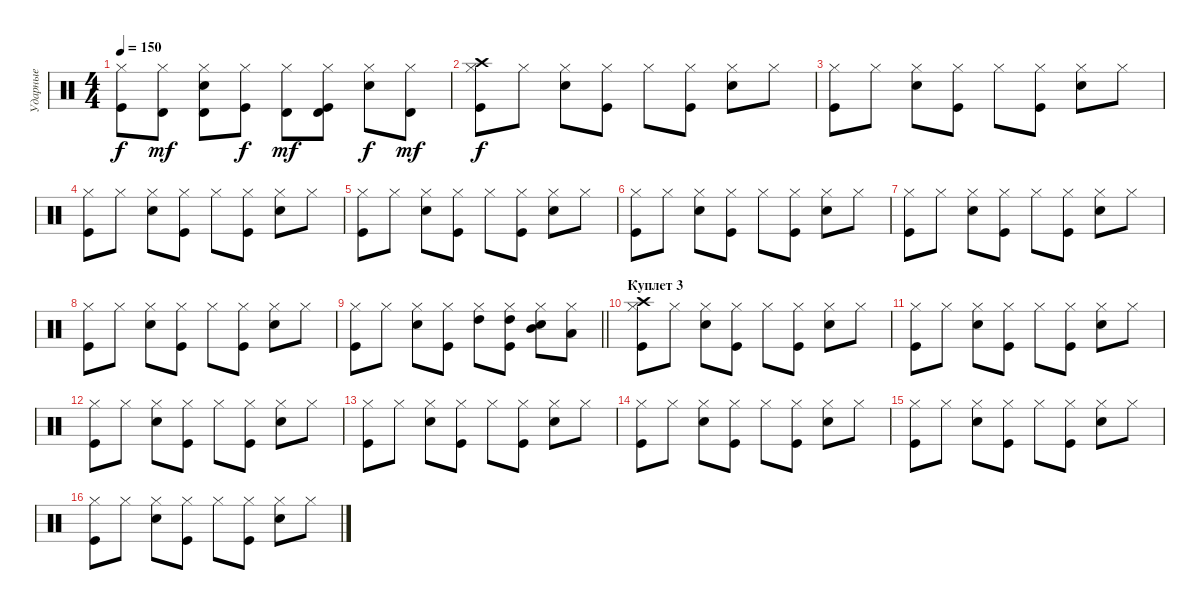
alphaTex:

\track ("Ударные" "Ударные") {instrument percussion}
\staff {score}
\articulation defaults
\ts (4 4)
\tempo 150
\clef neutral
\ks c
("Kick (hit)" "Hi-Hat (closed)").8{dy f} ("Hi-Hat (closed)" "Timbale high (hit)").8{dy mf} ("Snare (hit) 2" "Hi-Hat (closed)" "Timbale high (hit)").8 ("Kick (hit)" "Hi-Hat (closed)").8{dy f} ("Hi-Hat (closed)" "Timbale high (hit)").8{dy mf} ("Kick (hit)" "Hi-Hat (closed)" "Timbale high (hit)").8 ("Snare (hit) 2" "Hi-Hat (closed)").8{dy f} ("Hi-Hat (closed)" "Timbale high (hit)").8{dy mf} |
("Kick (hit)" "Hi-Hat (closed)" "Crash high (hit)").8{dy f} "Hi-Hat (closed)".8 ("Snare (hit) 2" "Hi-Hat (closed)").8 ("Kick (hit)" "Hi-Hat (closed)").8 "Hi-Hat (closed)".8 ("Kick (hit)" "Hi-Hat (closed)").8 ("Snare (hit) 2" "Hi-Hat (closed)").8 "Hi-Hat (closed)".8 |
("Kick (hit)" "Hi-Hat (closed)").8 "Hi-Hat (closed)".8 ("Snare (hit) 2" "Hi-Hat (closed)").8 ("Kick (hit)" "Hi-Hat (closed)").8 "Hi-Hat (closed)".8 ("Kick (hit)" "Hi-Hat (closed)").8 ("Snare (hit) 2" "Hi-Hat (closed)").8 "Hi-Hat (closed)".8 |
("Kick (hit)" "Hi-Hat (closed)").8 "Hi-Hat (closed)".8 ("Snare (hit) 2" "Hi-Hat (closed)").8 ("Kick (hit)" "Hi-Hat (closed)").8 "Hi-Hat (closed)".8 ("Kick (hit)" "Hi-Hat (closed)").8 ("Snare (hit) 2" "Hi-Hat (closed)").8 "Hi-Hat (closed)".8 |
("Kick (hit)" "Hi-Hat (closed)").8 "Hi-Hat (closed)".8 ("Snare (hit) 2" "Hi-Hat (closed)").8 ("Kick (hit)" "Hi-Hat (closed)").8 "Hi-Hat (closed)".8 ("Kick (hit)" "Hi-Hat (closed)").8 ("Snare (hit) 2" "Hi-Hat (closed)").8 "Hi-Hat (closed)".8 |
("Kick (hit)" "Hi-Hat (closed)").8 "Hi-Hat (closed)".8 ("Snare (hit) 2" "Hi-Hat (closed)").8 ("Kick (hit)" "Hi-Hat (closed)").8 "Hi-Hat (closed)".8 ("Kick (hit)" "Hi-Hat (closed)").8 ("Snare (hit) 2" "Hi-Hat (closed)").8 "Hi-Hat (closed)".8 |
("Kick (hit)" "Hi-Hat (closed)").8 "Hi-Hat (closed)".8 ("Snare (hit) 2" "Hi-Hat (closed)").8 ("Kick (hit)" "Hi-Hat (closed)").8 "Hi-Hat (closed)".8 ("Kick (hit)" "Hi-Hat (closed)").8 ("Snare (hit) 2" "Hi-Hat (closed)").8 "Hi-Hat (closed)".8 |
("Kick (hit)" "Hi-Hat (closed)").8 "Hi-Hat (closed)".8 ("Snare (hit) 2" "Hi-Hat (closed)").8 ("Kick (hit)" "Hi-Hat (closed)").8 "Hi-Hat (closed)".8 ("Kick (hit)" "Hi-Hat (closed)").8 ("Snare (hit) 2" "Hi-Hat (closed)").8 "Hi-Hat (closed)".8 |
\barLineRight lightlight
("Kick (hit)" "Hi-Hat (closed)").8 "Hi-Hat (closed)".8 ("Snare (hit) 2" "Hi-Hat (closed)").8 ("Kick (hit)" "Hi-Hat (closed)").8 ("Hi-Hat (closed)" "High Tom (hit)").8 ("Kick (hit)" "Hi-Hat (closed)" "High Tom (hit)").8 ("Snare (hit) 2" "Hi-Hat (closed)" "Mid Tom (hit)").8 ("Hi-Hat (closed)" "Low Tom (hit)").8 |
\section ("" "Куплет 3")
("Kick (hit)" "Hi-Hat (closed)" "Crash high (hit)").8 "Hi-Hat (closed)".8 ("Snare (hit) 2" "Hi-Hat (closed)").8 ("Kick (hit)" "Hi-Hat (closed)").8 "Hi-Hat (closed)".8 ("Kick (hit)" "Hi-Hat (closed)").8 ("Snare (hit) 2" "Hi-Hat (closed)").8 "Hi-Hat (closed)".8 |
("Kick (hit)" "Hi-Hat (closed)").8 "Hi-Hat (closed)".8 ("Snare (hit) 2" "Hi-Hat (closed)").8 ("Kick (hit)" "Hi-Hat (closed)").8 "Hi-Hat (closed)".8 ("Kick (hit)" "Hi-Hat (closed)").8 ("Snare (hit) 2" "Hi-Hat (closed)").8 "Hi-Hat (closed)".8 |
("Kick (hit)" "Hi-Hat (closed)").8 "Hi-Hat (closed)".8 ("Snare (hit) 2" "Hi-Hat (closed)").8 ("Kick (hit)" "Hi-Hat (closed)").8 "Hi-Hat (closed)".8 ("Kick (hit)" "Hi-Hat (closed)").8 ("Snare (hit) 2" "Hi-Hat (closed)").8 "Hi-Hat (closed)".8 |
("Kick (hit)" "Hi-Hat (closed)").8 "Hi-Hat (closed)".8 ("Snare (hit) 2" "Hi-Hat (closed)").8 ("Kick (hit)" "Hi-Hat (closed)").8 "Hi-Hat (closed)".8 ("Kick (hit)" "Hi-Hat (closed)").8 ("Snare (hit) 2" "Hi-Hat (closed)").8 "Hi-Hat (closed)".8 |
("Kick (hit)" "Hi-Hat (closed)").8 "Hi-Hat (closed)".8 ("Snare (hit) 2" "Hi-Hat (closed)").8 ("Kick (hit)" "Hi-Hat (closed)").8 "Hi-Hat (closed)".8 ("Kick (hit)" "Hi-Hat (closed)").8 ("Snare (hit) 2" "Hi-Hat (closed)").8 "Hi-Hat (closed)".8 |
("Kick (hit)" "Hi-Hat (closed)").8 "Hi-Hat (closed)".8 ("Snare (hit) 2" "Hi-Hat (closed)").8 ("Kick (hit)" "Hi-Hat (closed)").8 "Hi-Hat (closed)".8 ("Kick (hit)" "Hi-Hat (closed)").8 ("Snare (hit) 2" "Hi-Hat (closed)").8 "Hi-Hat (closed)".8 |
("Kick (hit)" "Hi-Hat (closed)").8 "Hi-Hat (closed)".8 ("Snare (hit) 2" "Hi-Hat (closed)").8 ("Kick (hit)" "Hi-Hat (closed)").8 "Hi-Hat (closed)".8 ("Kick (hit)" "Hi-Hat (closed)").8 ("Snare (hit) 2" "Hi-Hat (closed)").8 "Hi-Hat (closed)".8
